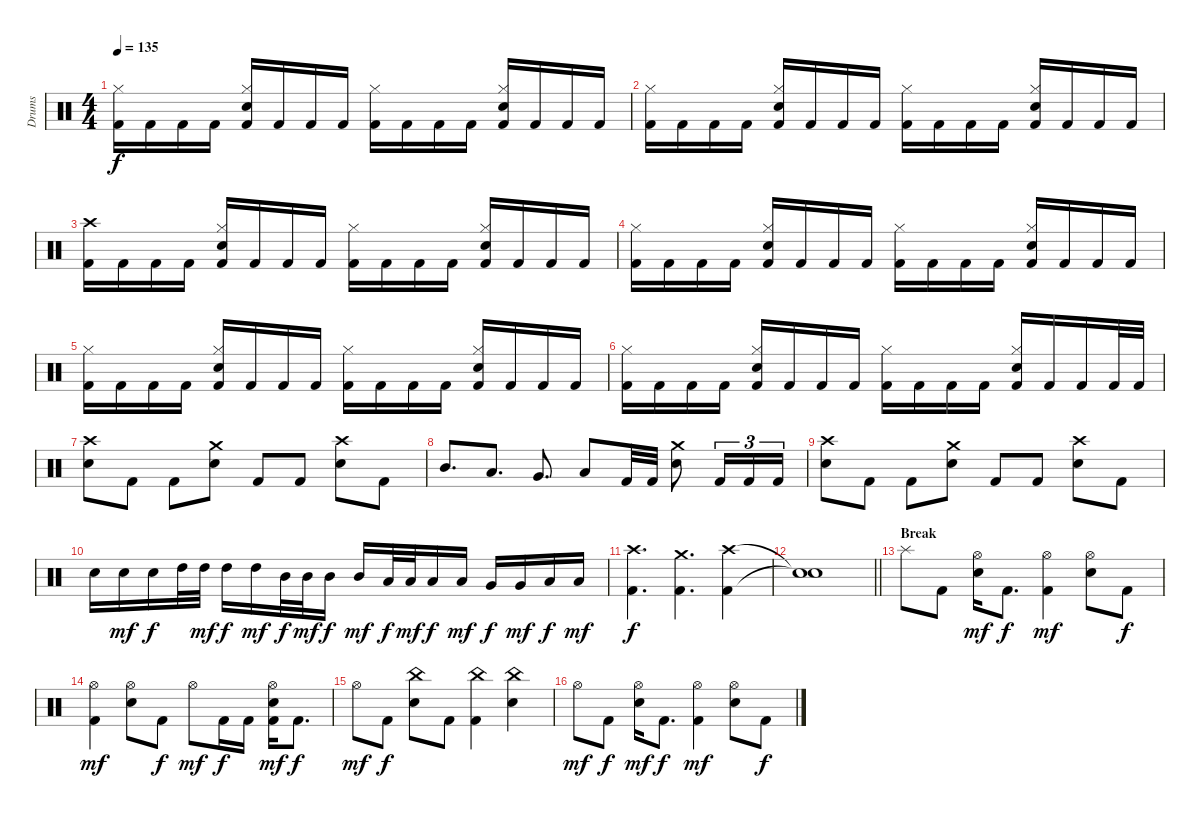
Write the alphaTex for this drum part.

\track ("Drums" "Drums") {instrument percussion}
\staff {score}
\articulation defaults
\ts (4 4)
\tempo 135
\clef neutral
\ks c
("Kick (hit) 2" "Hi-Hat (closed)").16{dy f} "Kick (hit) 2".16 "Kick (hit) 2".16 "Kick (hit) 2".16 ("Kick (hit) 2" "Hi-Hat (closed)" "Electric Snare (hit)").16 "Kick (hit) 2".16 "Kick (hit) 2".16 "Kick (hit) 2".16 ("Kick (hit) 2" "Hi-Hat (closed)").16 "Kick (hit) 2".16 "Kick (hit) 2".16 "Kick (hit) 2".16 ("Kick (hit) 2" "Hi-Hat (closed)" "Electric Snare (hit)").16 "Kick (hit) 2".16 "Kick (hit) 2".16 "Kick (hit) 2".16 |
("Kick (hit) 2" "Hi-Hat (closed)").16 "Kick (hit) 2".16 "Kick (hit) 2".16 "Kick (hit) 2".16 ("Kick (hit) 2" "Hi-Hat (closed)" "Electric Snare (hit)").16 "Kick (hit) 2".16 "Kick (hit) 2".16 "Kick (hit) 2".16 ("Kick (hit) 2" "Hi-Hat (closed)").16 "Kick (hit) 2".16 "Kick (hit) 2".16 "Kick (hit) 2".16 ("Kick (hit) 2" "Hi-Hat (closed)" "Electric Snare (hit)").16 "Kick (hit) 2".16 "Kick (hit) 2".16 "Kick (hit) 2".16 |
("Kick (hit) 2" "Crash high (hit)").16 "Kick (hit) 2".16 "Kick (hit) 2".16 "Kick (hit) 2".16 ("Kick (hit) 2" "Hi-Hat (closed)" "Electric Snare (hit)").16 "Kick (hit) 2".16 "Kick (hit) 2".16 "Kick (hit) 2".16 ("Kick (hit) 2" "Hi-Hat (closed)").16 "Kick (hit) 2".16 "Kick (hit) 2".16 "Kick (hit) 2".16 ("Kick (hit) 2" "Hi-Hat (closed)" "Electric Snare (hit)").16 "Kick (hit) 2".16 "Kick (hit) 2".16 "Kick (hit) 2".16 |
("Kick (hit) 2" "Hi-Hat (closed)").16 "Kick (hit) 2".16 "Kick (hit) 2".16 "Kick (hit) 2".16 ("Kick (hit) 2" "Hi-Hat (closed)" "Electric Snare (hit)").16 "Kick (hit) 2".16 "Kick (hit) 2".16 "Kick (hit) 2".16 ("Kick (hit) 2" "Hi-Hat (closed)").16 "Kick (hit) 2".16 "Kick (hit) 2".16 "Kick (hit) 2".16 ("Kick (hit) 2" "Hi-Hat (closed)" "Electric Snare (hit)").16 "Kick (hit) 2".16 "Kick (hit) 2".16 "Kick (hit) 2".16 |
("Kick (hit) 2" "Hi-Hat (closed)").16 "Kick (hit) 2".16 "Kick (hit) 2".16 "Kick (hit) 2".16 ("Kick (hit) 2" "Hi-Hat (closed)" "Electric Snare (hit)").16 "Kick (hit) 2".16 "Kick (hit) 2".16 "Kick (hit) 2".16 ("Kick (hit) 2" "Hi-Hat (closed)").16 "Kick (hit) 2".16 "Kick (hit) 2".16 "Kick (hit) 2".16 ("Kick (hit) 2" "Hi-Hat (closed)" "Electric Snare (hit)").16 "Kick (hit) 2".16 "Kick (hit) 2".16 "Kick (hit) 2".16 |
("Kick (hit) 2" "Hi-Hat (closed)").16 "Kick (hit) 2".16 "Kick (hit) 2".16 "Kick (hit) 2".16 ("Kick (hit) 2" "Hi-Hat (closed)" "Electric Snare (hit)").16 "Kick (hit) 2".16 "Kick (hit) 2".16 "Kick (hit) 2".16 ("Kick (hit) 2" "Hi-Hat (closed)").16 "Kick (hit) 2".16 "Kick (hit) 2".16 "Kick (hit) 2".16 ("Kick (hit) 2" "Hi-Hat (closed)" "Electric Snare (hit)").16 "Kick (hit) 2".16 "Kick (hit) 2".16 "Kick (hit) 2".32 "Kick (hit) 2".32 |
("Crash high (hit)" "Electric Snare (hit)").8 "Kick (hit) 2".8 "Kick (hit) 2".8 ("Crash medium (hit)" "Electric Snare (hit)").8 "Kick (hit) 2".8 "Kick (hit) 2".8 ("Crash high (hit)" "Electric Snare (hit)").8 "Kick (hit) 2".8 |
"Mid Tom (hit)".8{d} "Low Tom (hit)".8{d} "Very Low Tom (hit)".8{d} "Low Floor Tom (hit)".8 "Kick (hit) 2".32 "Kick (hit) 2".32 ("Crash medium (hit)" "Electric Snare (hit)").8 "Kick (hit) 2".16{tu (3 2)} "Kick (hit) 2".16{tu (3 2)} "Kick (hit) 2".16{tu (3 2)} |
("Crash high (hit)" "Electric Snare (hit)").8 "Kick (hit) 2".8 "Kick (hit) 2".8 ("Crash medium (hit)" "Electric Snare (hit)").8 "Kick (hit) 2".8 "Kick (hit) 2".8 ("Crash high (hit)" "Electric Snare (hit)").8 "Kick (hit) 2".8 |
"Electric Snare (hit)".16 "Electric Snare (hit)".16{dy mf} "Electric Snare (hit)".16{dy f} "High Tom (hit)".32 "High Tom (hit)".32{dy mf} "High Tom (hit)".16{dy f} "High Tom (hit)".16{dy mf} "Mid Tom (hit)".32{dy f} "Mid Tom (hit)".32{dy mf} "Mid Tom (hit)".16{dy f} "Mid Tom (hit)".16{dy mf} "Low Tom (hit)".32{dy f} "Low Tom (hit)".32{dy mf} "Low Tom (hit)".16{dy f} "Low Tom (hit)".16{dy mf} "Very Low Tom (hit)".16{dy f} "Very Low Tom (hit)".16{dy mf} "Low Floor Tom (hit)".16{dy f} "Low Floor Tom (hit)".16{dy mf} |
("Kick (hit) 2" "Crash high (hit)").4{d dy f} ("Kick (hit) 2" "Crash medium (hit)").4{d} ("Kick (hit) 2" "Crash high (hit)").4 |
\barLineRight lightlight
("Snare (hit)"{t} "Snare (hit)"{t}).1 |
\section ("" "Break")
"Splash (hit)".8 "Kick (hit) 2".8 ("Hi-Hat (open)" "Electric Snare (hit)").16{dy mf} "Kick (hit) 2".8{d dy f} ("Kick (hit) 2" "Hi-Hat (open)").4{dy mf} ("Hi-Hat (open)" "Electric Snare (hit)").8 "Kick (hit) 2".8{dy f} |
("Kick (hit) 2" "Hi-Hat (open)").4{dy mf} ("Hi-Hat (open)" "Electric Snare (hit)").8 "Kick (hit) 2".8{dy f} "Hi-Hat (open)".8{dy mf} "Kick (hit) 2".16{dy f} "Kick (hit) 2".16 ("Kick (hit) 2" "Hi-Hat (open)" "Electric Snare (hit)").16{dy mf} "Kick (hit) 2".8{d dy f} |
"Hi-Hat (open)".8{dy mf} "Kick (hit) 2".8{dy f} ("China (hit)" "Electric Snare (hit)").8 "Kick (hit) 2".8 ("Kick (hit) 2" "China (hit)").4 ("China (hit)" "Electric Snare (hit)").4 |
"Hi-Hat (open)".8{dy mf} "Kick (hit) 2".8{dy f} ("Hi-Hat (open)" "Electric Snare (hit)").16{dy mf} "Kick (hit) 2".8{d dy f} ("Kick (hit) 2" "Hi-Hat (open)").4{dy mf} ("Hi-Hat (open)" "Electric Snare (hit)").8 "Kick (hit) 2".8{dy f}
